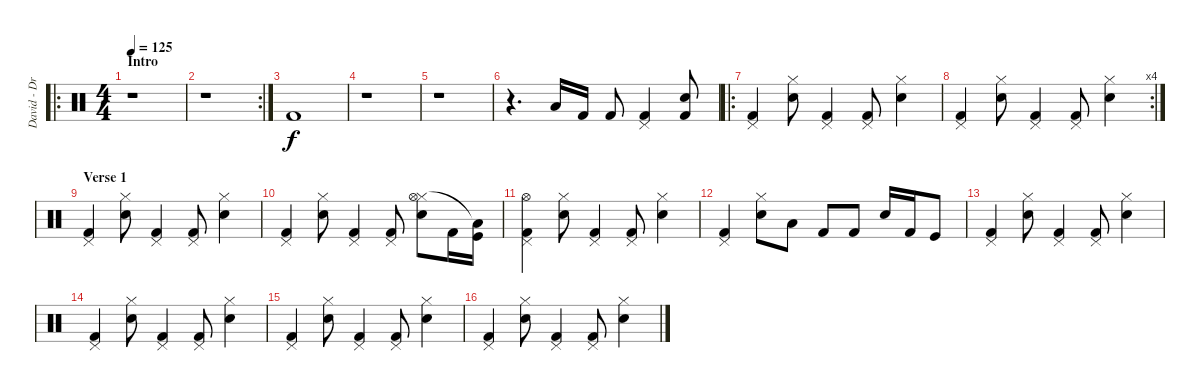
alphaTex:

\track ("David - Drums" "David - Dr") {instrument percussion}
\staff {score}
\articulation defaults
\ro
\ts (4 4)
\section ("" "Intro")
\tempo 125
\clef neutral
\ks c
r.1{dy f} |
\rc 2
r.1 |
"Kick (hit) 2".1 |
r.1 |
r.1 |
r.4{d} "Low Floor Tom (hit)".16 "Kick (hit) 2".16 "Kick (hit) 2".8 ("Kick (hit) 2" "Pedal Hi-Hat (hit)").4 ("Kick (hit) 2" "Snare (hit) 2").8 |
\ro
("Kick (hit) 2" "Pedal Hi-Hat (hit)").4 ("Snare (hit) 2" "Hi-Hat (closed)").8 ("Kick (hit) 2" "Pedal Hi-Hat (hit)").4 ("Kick (hit) 2" "Pedal Hi-Hat (hit)").8 ("Snare (hit) 2" "Hi-Hat (closed)").4 |
\rc 4
("Kick (hit) 2" "Pedal Hi-Hat (hit)").4 ("Snare (hit) 2" "Hi-Hat (closed)").8 ("Kick (hit) 2" "Pedal Hi-Hat (hit)").4 ("Kick (hit) 2" "Pedal Hi-Hat (hit)").8 ("Snare (hit) 2" "Hi-Hat (closed)").4 |
\section ("" "Verse 1")
("Kick (hit) 2" "Pedal Hi-Hat (hit)").4 ("Snare (hit) 2" "Hi-Hat (closed)").8 ("Kick (hit) 2" "Pedal Hi-Hat (hit)").4 ("Kick (hit) 2" "Pedal Hi-Hat (hit)").8 ("Snare (hit) 2" "Hi-Hat (closed)").4 |
("Kick (hit) 2" "Pedal Hi-Hat (hit)").4 ("Snare (hit) 2" "Hi-Hat (closed)").8 ("Kick (hit) 2" "Pedal Hi-Hat (hit)").4 ("Kick (hit) 2" "Pedal Hi-Hat (hit)").8 ("Snare (hit) 2" "Hi-Hat (closed)" "Hi-Hat (open)").8 "Kick (hit) 2".16 ("Kick (hit)" "Low Floor Tom (hit)"{t}).16 |
("Kick (hit) 2" "Pedal Hi-Hat (hit)" "Hi-Hat (open)").4 ("Snare (hit) 2" "Hi-Hat (closed)").8 ("Kick (hit) 2" "Pedal Hi-Hat (hit)").4 ("Kick (hit) 2" "Pedal Hi-Hat (hit)").8 ("Snare (hit) 2" "Hi-Hat (closed)").4 |
("Kick (hit) 2" "Pedal Hi-Hat (hit)").4 ("Snare (hit) 2" "Hi-Hat (closed)").8 "Low Floor Tom (hit)".8 "Kick (hit) 2".8 "Kick (hit) 2".8 "Snare (hit) 2".16 "Kick (hit) 2".16 "Kick (hit)".8 |
("Kick (hit) 2" "Pedal Hi-Hat (hit)").4 ("Snare (hit) 2" "Hi-Hat (closed)").8 ("Kick (hit) 2" "Pedal Hi-Hat (hit)").4 ("Kick (hit) 2" "Pedal Hi-Hat (hit)").8 ("Snare (hit) 2" "Hi-Hat (closed)").4 |
("Kick (hit) 2" "Pedal Hi-Hat (hit)").4 ("Snare (hit) 2" "Hi-Hat (closed)").8 ("Kick (hit) 2" "Pedal Hi-Hat (hit)").4 ("Kick (hit) 2" "Pedal Hi-Hat (hit)").8 ("Snare (hit) 2" "Hi-Hat (closed)").4 |
("Kick (hit) 2" "Pedal Hi-Hat (hit)").4 ("Snare (hit) 2" "Hi-Hat (closed)").8 ("Kick (hit) 2" "Pedal Hi-Hat (hit)").4 ("Kick (hit) 2" "Pedal Hi-Hat (hit)").8 ("Snare (hit) 2" "Hi-Hat (closed)").4 |
("Kick (hit) 2" "Pedal Hi-Hat (hit)").4 ("Snare (hit) 2" "Hi-Hat (closed)").8 ("Kick (hit) 2" "Pedal Hi-Hat (hit)").4 ("Kick (hit) 2" "Pedal Hi-Hat (hit)").8 ("Snare (hit) 2" "Hi-Hat (closed)").4
